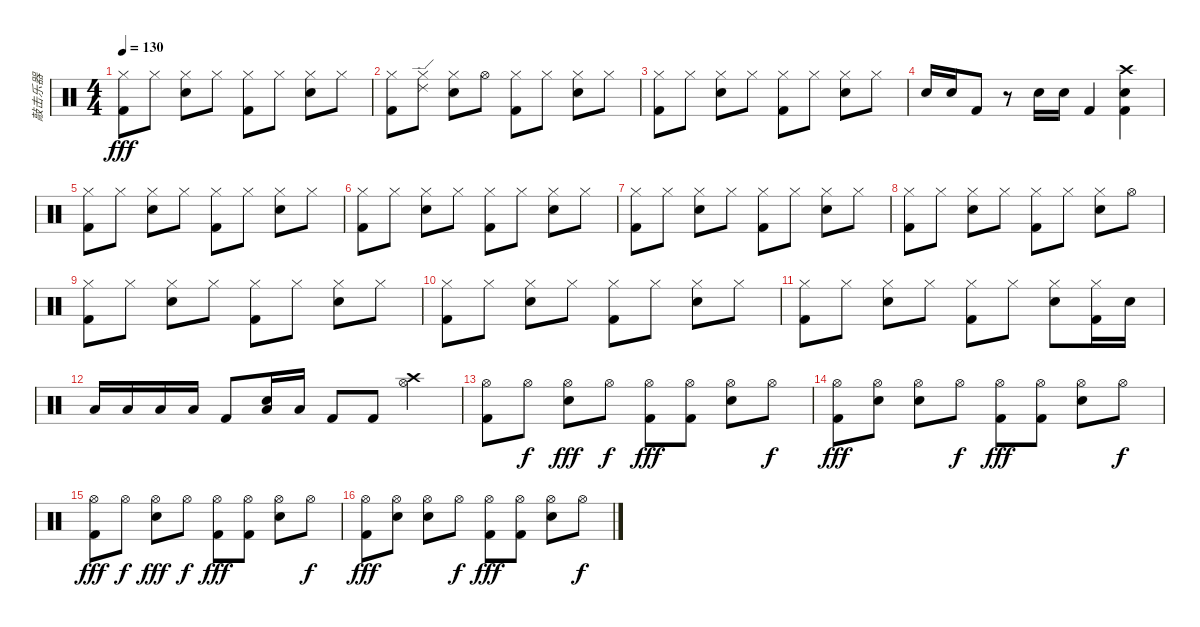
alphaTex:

\track ("敲击乐器" "敲击乐器") {instrument percussion}
\staff {score}
\articulation defaults
\ts (4 4)
\tempo 130
\clef neutral
\ks c
("Hi-Hat (closed)" "Kick (hit) 2").8{dy fff} "Hi-Hat (closed)".8 ("Hi-Hat (closed)" "Electric Snare (hit)").8 "Hi-Hat (closed)".8 ("Hi-Hat (closed)" "Kick (hit) 2").8 "Hi-Hat (closed)".8 ("Hi-Hat (closed)" "Electric Snare (hit)").8 "Hi-Hat (closed)".8 |
("Hi-Hat (closed)" "Kick (hit) 2").8 ("Hi-Hat (closed)" "Ride (edge) 2").8 ("Hi-Hat (closed)" "Electric Snare (hit)").8 "Hi-Hat (open)".8 ("Hi-Hat (closed)" "Kick (hit) 2").8 "Hi-Hat (closed)".8 ("Hi-Hat (closed)" "Electric Snare (hit)").8 "Hi-Hat (closed)".8 |
("Hi-Hat (closed)" "Kick (hit) 2").8 "Hi-Hat (closed)".8 ("Hi-Hat (closed)" "Electric Snare (hit)").8 "Hi-Hat (closed)".8 ("Hi-Hat (closed)" "Kick (hit) 2").8 "Hi-Hat (closed)".8 ("Hi-Hat (closed)" "Electric Snare (hit)").8 "Hi-Hat (closed)".8 |
"Electric Snare (hit)".16 "Electric Snare (hit)".16 "Kick (hit) 2".8 r.8 "Electric Snare (hit)".16 "Electric Snare (hit)".16 "Kick (hit) 2".4 ("Crash high (hit)" "Electric Snare (hit)" "Kick (hit) 2").4 |
("Hi-Hat (closed)" "Kick (hit) 2").8 "Hi-Hat (closed)".8 ("Hi-Hat (closed)" "Electric Snare (hit)").8 "Hi-Hat (closed)".8 ("Hi-Hat (closed)" "Kick (hit) 2").8 "Hi-Hat (closed)".8 ("Hi-Hat (closed)" "Electric Snare (hit)").8 "Hi-Hat (closed)".8 |
("Hi-Hat (closed)" "Kick (hit) 2").8 "Hi-Hat (closed)".8 ("Hi-Hat (closed)" "Electric Snare (hit)").8 "Hi-Hat (closed)".8 ("Hi-Hat (closed)" "Kick (hit) 2").8 "Hi-Hat (closed)".8 ("Hi-Hat (closed)" "Electric Snare (hit)").8 "Hi-Hat (closed)".8 |
("Hi-Hat (closed)" "Kick (hit) 2").8 "Hi-Hat (closed)".8 ("Hi-Hat (closed)" "Electric Snare (hit)").8 "Hi-Hat (closed)".8 ("Hi-Hat (closed)" "Kick (hit) 2").8 "Hi-Hat (closed)".8 ("Hi-Hat (closed)" "Electric Snare (hit)").8 "Hi-Hat (closed)".8 |
("Hi-Hat (closed)" "Kick (hit) 2").8 "Hi-Hat (closed)".8 ("Hi-Hat (closed)" "Electric Snare (hit)").8 "Hi-Hat (closed)".8 ("Hi-Hat (closed)" "Kick (hit) 2").8 "Hi-Hat (closed)".8 ("Hi-Hat (closed)" "Electric Snare (hit)").8 "Hi-Hat (open)".8 |
("Hi-Hat (closed)" "Kick (hit) 2").8 "Hi-Hat (closed)".8 ("Hi-Hat (closed)" "Electric Snare (hit)").8 "Hi-Hat (closed)".8 ("Hi-Hat (closed)" "Kick (hit) 2").8 "Hi-Hat (closed)".8 ("Hi-Hat (closed)" "Electric Snare (hit)").8 "Hi-Hat (closed)".8 |
("Hi-Hat (closed)" "Kick (hit) 2").8 "Hi-Hat (closed)".8 ("Hi-Hat (closed)" "Electric Snare (hit)").8 "Hi-Hat (closed)".8 ("Hi-Hat (closed)" "Kick (hit) 2").8 "Hi-Hat (closed)".8 ("Hi-Hat (closed)" "Electric Snare (hit)").8 "Hi-Hat (closed)".8 |
("Hi-Hat (closed)" "Kick (hit) 2").8 "Hi-Hat (closed)".8 ("Hi-Hat (closed)" "Electric Snare (hit)").8 "Hi-Hat (closed)".8 ("Hi-Hat (closed)" "Kick (hit) 2").8 "Hi-Hat (closed)".8 ("Hi-Hat (closed)" "Electric Snare (hit)").8 ("Hi-Hat (closed)" "Kick (hit) 2").16 "Electric Snare (hit)".16 |
"Low Tom (hit)".16 "Low Tom (hit)".16 "Low Tom (hit)".16 "Low Tom (hit)".16 "Kick (hit) 2".8 ("Electric Snare (hit)" "Low Tom (hit)").16 "Low Tom (hit)".16 "Kick (hit) 2".8 "Kick (hit) 2".8 ("Crash high (hit)" "Hi-Hat (open)").4 |
("Hi-Hat (open)" "Kick (hit) 2").8 "Hi-Hat (open)".8{dy f} ("Hi-Hat (open)" "Electric Snare (hit)").8{dy fff} "Hi-Hat (open)".8{dy f} ("Hi-Hat (open)" "Kick (hit) 2").8{dy fff} ("Hi-Hat (open)" "Kick (hit) 2").8 ("Hi-Hat (open)" "Electric Snare (hit)").8 "Hi-Hat (open)".8{dy f} |
("Hi-Hat (open)" "Kick (hit) 2").8{dy fff} ("Hi-Hat (open)" "Electric Snare (hit)").8 ("Hi-Hat (open)" "Electric Snare (hit)").8 "Hi-Hat (open)".8{dy f} ("Hi-Hat (open)" "Kick (hit) 2").8{dy fff} ("Hi-Hat (open)" "Kick (hit) 2").8 ("Hi-Hat (open)" "Electric Snare (hit)").8 "Hi-Hat (open)".8{dy f} |
("Hi-Hat (open)" "Kick (hit) 2").8{dy fff} "Hi-Hat (open)".8{dy f} ("Hi-Hat (open)" "Electric Snare (hit)").8{dy fff} "Hi-Hat (open)".8{dy f} ("Hi-Hat (open)" "Kick (hit) 2").8{dy fff} ("Hi-Hat (open)" "Kick (hit) 2").8 ("Hi-Hat (open)" "Electric Snare (hit)").8 "Hi-Hat (open)".8{dy f} |
("Hi-Hat (open)" "Kick (hit) 2").8{dy fff} ("Hi-Hat (open)" "Electric Snare (hit)").8 ("Hi-Hat (open)" "Electric Snare (hit)").8 "Hi-Hat (open)".8{dy f} ("Hi-Hat (open)" "Kick (hit) 2").8{dy fff} ("Hi-Hat (open)" "Kick (hit) 2").8 ("Hi-Hat (open)" "Electric Snare (hit)").8 "Hi-Hat (open)".8{dy f}
